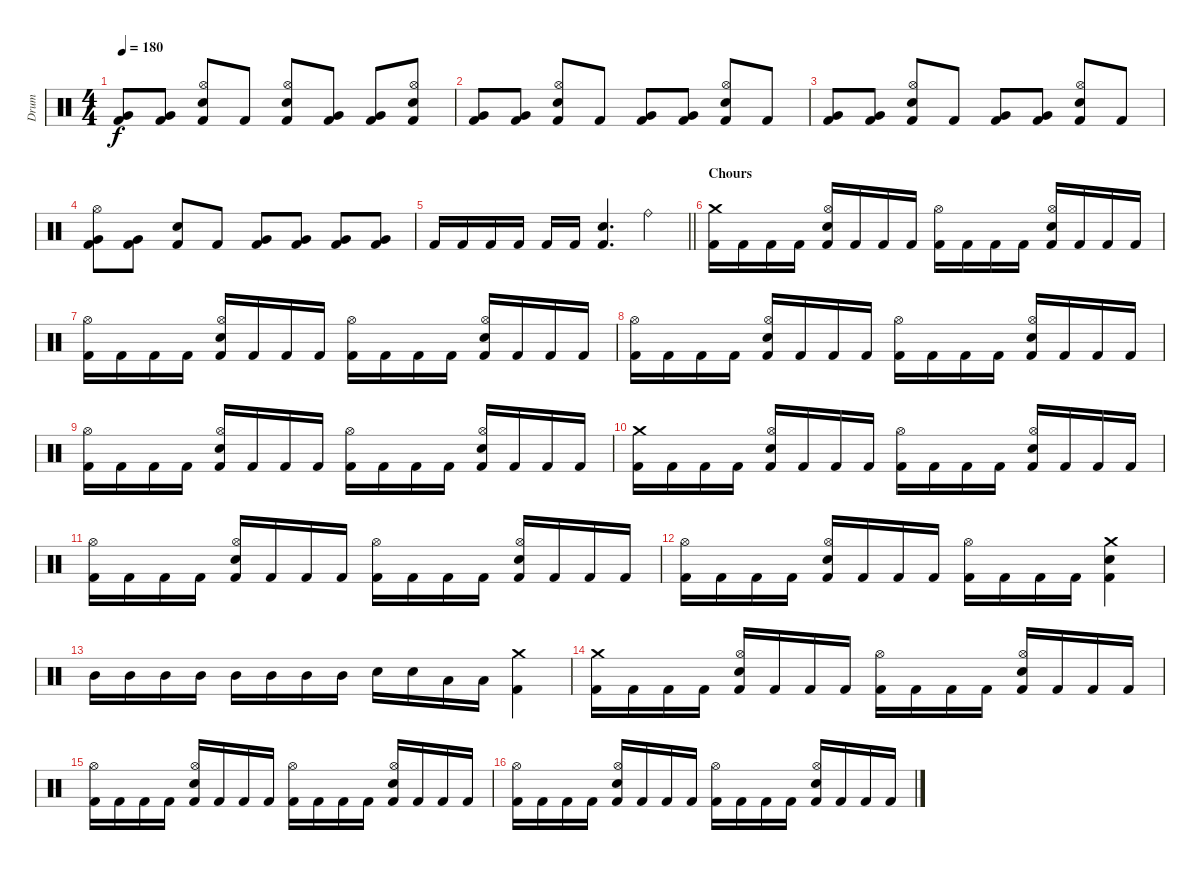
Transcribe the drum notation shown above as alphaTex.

\track ("Drum" "Drum") {instrument percussion}
\staff
\articulation defaults
\ts (4 4)
\tempo 180
\clef neutral
\ks c
("Very Low Tom (hit)" "Kick (hit) 2").8{dy f} ("Very Low Tom (hit)" "Kick (hit) 2").8 ("Hi-Hat (open)" "Electric Snare (hit)" "Kick (hit) 2").8 "Kick (hit) 2".8 ("Hi-Hat (open)" "Electric Snare (hit)" "Kick (hit) 2").8 ("Very Low Tom (hit)" "Kick (hit) 2").8 ("Very Low Tom (hit)" "Kick (hit) 2").8 ("Hi-Hat (open)" "Electric Snare (hit)" "Kick (hit) 2").8 |
("Very Low Tom (hit)" "Kick (hit) 2").8 ("Very Low Tom (hit)" "Kick (hit) 2").8 ("Hi-Hat (open)" "Electric Snare (hit)" "Kick (hit) 2").8 "Kick (hit) 2".8 ("Very Low Tom (hit)" "Kick (hit) 2").8 ("Very Low Tom (hit)" "Kick (hit) 2").8 ("Hi-Hat (open)" "Electric Snare (hit)" "Kick (hit) 2").8 "Kick (hit) 2".8 |
("Very Low Tom (hit)" "Kick (hit) 2").8 ("Very Low Tom (hit)" "Kick (hit) 2").8 ("Hi-Hat (open)" "Electric Snare (hit)" "Kick (hit) 2").8 "Kick (hit) 2".8 ("Very Low Tom (hit)" "Kick (hit) 2").8 ("Very Low Tom (hit)" "Kick (hit) 2").8 ("Hi-Hat (open)" "Electric Snare (hit)" "Kick (hit) 2").8 "Kick (hit) 2".8 |
("Hi-Hat (open)" "Very Low Tom (hit)" "Kick (hit) 2").8 ("Very Low Tom (hit)" "Kick (hit) 2").8 ("Electric Snare (hit)" "Kick (hit) 2").8 "Kick (hit) 2".8 ("Very Low Tom (hit)" "Kick (hit) 2").8 ("Very Low Tom (hit)" "Kick (hit) 2").8 ("Very Low Tom (hit)" "Kick (hit) 2").8 ("Very Low Tom (hit)" "Kick (hit) 2").8 |
\barLineRight lightlight "Kick (hit) 2".16 "Kick (hit) 2".16 "Kick (hit) 2".16 "Kick (hit) 2".16 "Kick (hit) 2".16 "Kick (hit) 2".16
("Electric Snare (hit)" "Kick (hit) 2").4{d} "Ride (bell)".4 |
\section ("" "Chours")
("Crash medium (hit)" "Kick (hit) 2").16 "Kick (hit) 2".16 "Kick (hit) 2".16 "Kick (hit) 2".16 ("Hi-Hat (open)" "Electric Snare (hit)" "Kick (hit) 2").16 "Kick (hit) 2".16 "Kick (hit) 2".16 "Kick (hit) 2".16 ("Hi-Hat (open)" "Kick (hit) 2").16 "Kick (hit) 2".16 "Kick (hit) 2".16 "Kick (hit) 2".16 ("Hi-Hat (open)" "Electric Snare (hit)" "Kick (hit) 2").16 "Kick (hit) 2".16 "Kick (hit) 2".16 "Kick (hit) 2".16 |
("Hi-Hat (open)" "Kick (hit) 2").16 "Kick (hit) 2".16 "Kick (hit) 2".16 "Kick (hit) 2".16 ("Hi-Hat (open)" "Electric Snare (hit)" "Kick (hit) 2").16 "Kick (hit) 2".16 "Kick (hit) 2".16 "Kick (hit) 2".16 ("Hi-Hat (open)" "Kick (hit) 2").16 "Kick (hit) 2".16 "Kick (hit) 2".16 "Kick (hit) 2".16 ("Hi-Hat (open)" "Electric Snare (hit)" "Kick (hit) 2").16 "Kick (hit) 2".16 "Kick (hit) 2".16 "Kick (hit) 2".16 |
("Hi-Hat (open)" "Kick (hit) 2").16 "Kick (hit) 2".16 "Kick (hit) 2".16 "Kick (hit) 2".16 ("Hi-Hat (open)" "Electric Snare (hit)" "Kick (hit) 2").16 "Kick (hit) 2".16 "Kick (hit) 2".16 "Kick (hit) 2".16 ("Hi-Hat (open)" "Kick (hit) 2").16 "Kick (hit) 2".16 "Kick (hit) 2".16 "Kick (hit) 2".16 ("Hi-Hat (open)" "Electric Snare (hit)" "Kick (hit) 2").16 "Kick (hit) 2".16 "Kick (hit) 2".16 "Kick (hit) 2".16 |
("Hi-Hat (open)" "Kick (hit) 2").16 "Kick (hit) 2".16 "Kick (hit) 2".16 "Kick (hit) 2".16 ("Hi-Hat (open)" "Electric Snare (hit)" "Kick (hit) 2").16 "Kick (hit) 2".16 "Kick (hit) 2".16 "Kick (hit) 2".16 ("Hi-Hat (open)" "Kick (hit) 2").16 "Kick (hit) 2".16 "Kick (hit) 2".16 "Kick (hit) 2".16 ("Hi-Hat (open)" "Electric Snare (hit)" "Kick (hit) 2").16 "Kick (hit) 2".16 "Kick (hit) 2".16 "Kick (hit) 2".16 |
("Crash medium (hit)" "Kick (hit) 2").16 "Kick (hit) 2".16 "Kick (hit) 2".16 "Kick (hit) 2".16 ("Hi-Hat (open)" "Electric Snare (hit)" "Kick (hit) 2").16 "Kick (hit) 2".16 "Kick (hit) 2".16 "Kick (hit) 2".16 ("Hi-Hat (open)" "Kick (hit) 2").16 "Kick (hit) 2".16 "Kick (hit) 2".16 "Kick (hit) 2".16 ("Hi-Hat (open)" "Electric Snare (hit)" "Kick (hit) 2").16 "Kick (hit) 2".16 "Kick (hit) 2".16 "Kick (hit) 2".16 |
("Hi-Hat (open)" "Kick (hit) 2").16 "Kick (hit) 2".16 "Kick (hit) 2".16 "Kick (hit) 2".16 ("Hi-Hat (open)" "Electric Snare (hit)" "Kick (hit) 2").16 "Kick (hit) 2".16 "Kick (hit) 2".16 "Kick (hit) 2".16 ("Hi-Hat (open)" "Kick (hit) 2").16 "Kick (hit) 2".16 "Kick (hit) 2".16 "Kick (hit) 2".16 ("Hi-Hat (open)" "Electric Snare (hit)" "Kick (hit) 2").16 "Kick (hit) 2".16 "Kick (hit) 2".16 "Kick (hit) 2".16 |
("Hi-Hat (open)" "Kick (hit) 2").16 "Kick (hit) 2".16 "Kick (hit) 2".16 "Kick (hit) 2".16 ("Hi-Hat (open)" "Electric Snare (hit)" "Kick (hit) 2").16 "Kick (hit) 2".16 "Kick (hit) 2".16 "Kick (hit) 2".16 ("Hi-Hat (open)" "Kick (hit) 2").16 "Kick (hit) 2".16 "Kick (hit) 2".16 "Kick (hit) 2".16 ("Crash medium (hit)" "Electric Snare (hit)" "Kick (hit) 2").4 |
"Mid Tom (hit)".16 "Mid Tom (hit)".16 "Mid Tom (hit)".16 "Mid Tom (hit)".16 "Mid Tom (hit)".16 "Mid Tom (hit)".16 "Mid Tom (hit)".16 "Mid Tom (hit)".16 "Electric Snare (hit)".16 "Electric Snare (hit)".16 "Low Tom (hit)".16 "Low Tom (hit)".16 ("Crash medium (hit)" "Kick (hit) 2").4 |
("Crash medium (hit)" "Kick (hit) 2").16 "Kick (hit) 2".16 "Kick (hit) 2".16 "Kick (hit) 2".16 ("Hi-Hat (open)" "Electric Snare (hit)" "Kick (hit) 2").16 "Kick (hit) 2".16 "Kick (hit) 2".16 "Kick (hit) 2".16 ("Hi-Hat (open)" "Kick (hit) 2").16 "Kick (hit) 2".16 "Kick (hit) 2".16 "Kick (hit) 2".16 ("Hi-Hat (open)" "Electric Snare (hit)" "Kick (hit) 2").16 "Kick (hit) 2".16 "Kick (hit) 2".16 "Kick (hit) 2".16 |
("Hi-Hat (open)" "Kick (hit) 2").16 "Kick (hit) 2".16 "Kick (hit) 2".16 "Kick (hit) 2".16 ("Hi-Hat (open)" "Electric Snare (hit)" "Kick (hit) 2").16 "Kick (hit) 2".16 "Kick (hit) 2".16 "Kick (hit) 2".16 ("Hi-Hat (open)" "Kick (hit) 2").16 "Kick (hit) 2".16 "Kick (hit) 2".16 "Kick (hit) 2".16 ("Hi-Hat (open)" "Electric Snare (hit)" "Kick (hit) 2").16 "Kick (hit) 2".16 "Kick (hit) 2".16 "Kick (hit) 2".16 |
("Hi-Hat (open)" "Kick (hit) 2").16 "Kick (hit) 2".16 "Kick (hit) 2".16 "Kick (hit) 2".16 ("Hi-Hat (open)" "Electric Snare (hit)" "Kick (hit) 2").16 "Kick (hit) 2".16 "Kick (hit) 2".16 "Kick (hit) 2".16 ("Hi-Hat (open)" "Kick (hit) 2").16 "Kick (hit) 2".16 "Kick (hit) 2".16 "Kick (hit) 2".16 ("Hi-Hat (open)" "Electric Snare (hit)" "Kick (hit) 2").16 "Kick (hit) 2".16 "Kick (hit) 2".16 "Kick (hit) 2".16
